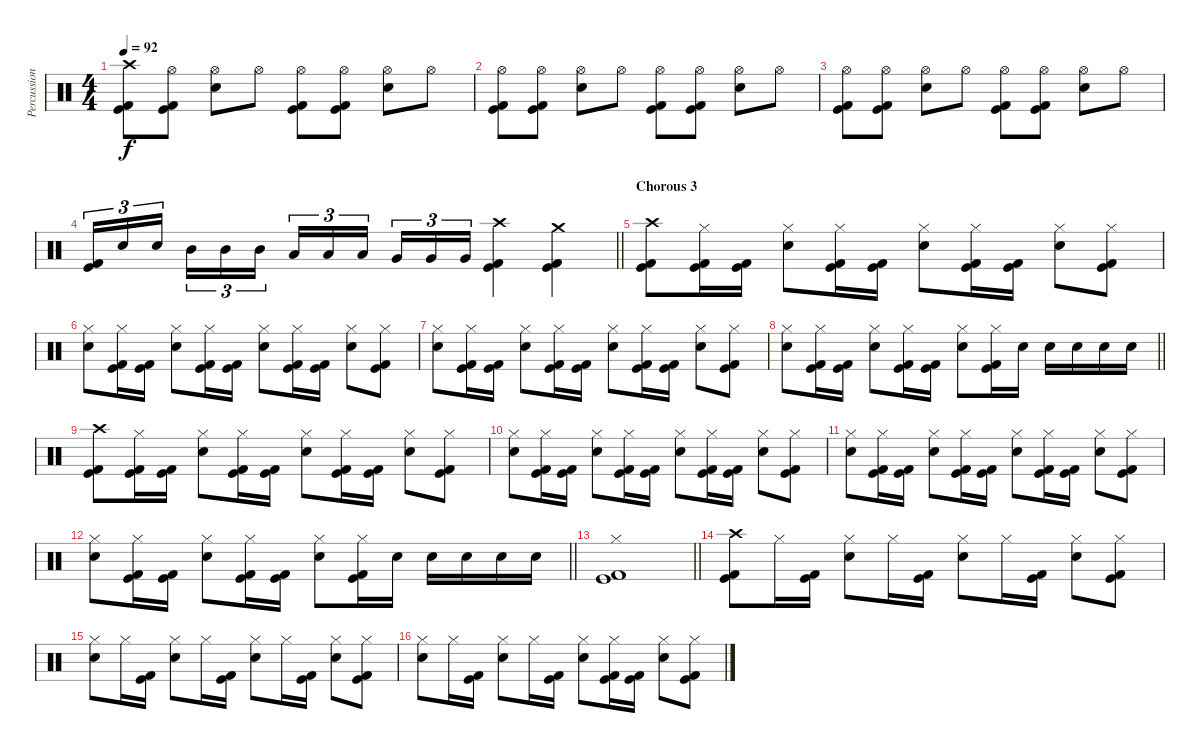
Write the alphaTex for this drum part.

\track ("Percussion" "Percussion") {instrument percussion}
\staff {score}
\articulation defaults
\ts (4 4)
\section ("" "")
\tempo 92
\clef neutral
\ks c
("Crash high (hit)" "Kick (hit)" "Kick (hit) 2").8{dy f} ("Hi-Hat (open)" "Kick (hit)" "Kick (hit) 2").8 ("Hi-Hat (open)" "Electric Snare (hit)").8 "Hi-Hat (open)".8 ("Hi-Hat (open)" "Kick (hit)" "Kick (hit) 2").8 ("Hi-Hat (open)" "Kick (hit)" "Kick (hit) 2").8 ("Hi-Hat (open)" "Electric Snare (hit)").8 "Hi-Hat (open)".8 |
("Hi-Hat (open)" "Kick (hit)" "Kick (hit) 2").8 ("Hi-Hat (open)" "Kick (hit)" "Kick (hit) 2").8 ("Hi-Hat (open)" "Electric Snare (hit)").8 "Hi-Hat (open)".8 ("Hi-Hat (open)" "Kick (hit)" "Kick (hit) 2").8 ("Hi-Hat (open)" "Kick (hit)" "Kick (hit) 2").8 ("Hi-Hat (open)" "Electric Snare (hit)").8 "Hi-Hat (open)".8 |
("Hi-Hat (open)" "Kick (hit)" "Kick (hit) 2").8 ("Hi-Hat (open)" "Kick (hit)" "Kick (hit) 2").8 ("Hi-Hat (open)" "Electric Snare (hit)").8 "Hi-Hat (open)".8 ("Hi-Hat (open)" "Kick (hit)" "Kick (hit) 2").8 ("Hi-Hat (open)" "Kick (hit)" "Kick (hit) 2").8 ("Hi-Hat (open)" "Electric Snare (hit)").8 "Hi-Hat (open)".8 |
\barLineRight lightlight
("Kick (hit)" "Kick (hit) 2").16{tu (3 2)} "Electric Snare (hit)".16{tu (3 2)} "Electric Snare (hit)".16{tu (3 2) beam splitsecondary} "Mid Tom (hit)".16{tu (3 2)} "Mid Tom (hit)".16{tu (3 2)} "Mid Tom (hit)".16{tu (3 2)} "Low Tom (hit)".16{tu (3 2)} "Low Tom (hit)".16{tu (3 2)} "Low Tom (hit)".16{tu (3 2) beam splitsecondary} "Very Low Tom (hit)".16{tu (3 2)} "Very Low Tom (hit)".16{tu (3 2)} "Very Low Tom (hit)".16{tu (3 2)} ("Crash high (hit)" "Kick (hit)" "Kick (hit) 2").4 ("Crash medium (hit)" "Kick (hit)" "Kick (hit) 2").4 |
\section ("" "Chorous 3")
("Crash high (hit)" "Kick (hit)" "Kick (hit) 2").8 ("Hi-Hat (closed)" "Kick (hit)" "Kick (hit) 2").16 ("Kick (hit)" "Kick (hit) 2").16 ("Hi-Hat (closed)" "Electric Snare (hit)").8 ("Hi-Hat (closed)" "Kick (hit)" "Kick (hit) 2").16 ("Kick (hit)" "Kick (hit) 2").16 ("Hi-Hat (closed)" "Electric Snare (hit)").8 ("Hi-Hat (closed)" "Kick (hit)" "Kick (hit) 2").16 ("Kick (hit)" "Kick (hit) 2").16 ("Hi-Hat (closed)" "Electric Snare (hit)").8 ("Hi-Hat (closed)" "Kick (hit)" "Kick (hit) 2").8 |
("Hi-Hat (closed)" "Electric Snare (hit)").8 ("Hi-Hat (closed)" "Kick (hit)" "Kick (hit) 2").16 ("Kick (hit)" "Kick (hit) 2").16 ("Hi-Hat (closed)" "Electric Snare (hit)").8 ("Hi-Hat (closed)" "Kick (hit)" "Kick (hit) 2").16 ("Kick (hit)" "Kick (hit) 2").16 ("Hi-Hat (closed)" "Electric Snare (hit)").8 ("Hi-Hat (closed)" "Kick (hit)" "Kick (hit) 2").16 ("Kick (hit)" "Kick (hit) 2").16 ("Hi-Hat (closed)" "Electric Snare (hit)").8 ("Hi-Hat (closed)" "Kick (hit)" "Kick (hit) 2").8 |
("Hi-Hat (closed)" "Electric Snare (hit)").8 ("Hi-Hat (closed)" "Kick (hit)" "Kick (hit) 2").16 ("Kick (hit)" "Kick (hit) 2").16 ("Hi-Hat (closed)" "Electric Snare (hit)").8 ("Hi-Hat (closed)" "Kick (hit)" "Kick (hit) 2").16 ("Kick (hit)" "Kick (hit) 2").16 ("Hi-Hat (closed)" "Electric Snare (hit)").8 ("Hi-Hat (closed)" "Kick (hit)" "Kick (hit) 2").16 ("Kick (hit)" "Kick (hit) 2").16 ("Hi-Hat (closed)" "Electric Snare (hit)").8 ("Hi-Hat (closed)" "Kick (hit)" "Kick (hit) 2").8 |
\barLineRight lightlight
("Hi-Hat (closed)" "Electric Snare (hit)").8 ("Hi-Hat (closed)" "Kick (hit)" "Kick (hit) 2").16 ("Kick (hit)" "Kick (hit) 2").16 ("Hi-Hat (closed)" "Electric Snare (hit)").8 ("Hi-Hat (closed)" "Kick (hit)" "Kick (hit) 2").16 ("Kick (hit)" "Kick (hit) 2").16 ("Hi-Hat (closed)" "Electric Snare (hit)").8 ("Hi-Hat (closed)" "Kick (hit)" "Kick (hit) 2").16 "Electric Snare (hit)".16 "Electric Snare (hit)".16 "Electric Snare (hit)".16 "Electric Snare (hit)".16 "Electric Snare (hit)".16 |
\section ("" "")
("Crash high (hit)" "Kick (hit)" "Kick (hit) 2").8 ("Hi-Hat (closed)" "Kick (hit)" "Kick (hit) 2").16 ("Kick (hit)" "Kick (hit) 2").16 ("Hi-Hat (closed)" "Electric Snare (hit)").8 ("Hi-Hat (closed)" "Kick (hit)" "Kick (hit) 2").16 ("Kick (hit)" "Kick (hit) 2").16 ("Hi-Hat (closed)" "Electric Snare (hit)").8 ("Hi-Hat (closed)" "Kick (hit)" "Kick (hit) 2").16 ("Kick (hit)" "Kick (hit) 2").16 ("Hi-Hat (closed)" "Electric Snare (hit)").8 ("Hi-Hat (closed)" "Kick (hit)" "Kick (hit) 2").8 |
("Hi-Hat (closed)" "Electric Snare (hit)").8 ("Hi-Hat (closed)" "Kick (hit)" "Kick (hit) 2").16 ("Kick (hit)" "Kick (hit) 2").16 ("Hi-Hat (closed)" "Electric Snare (hit)").8 ("Hi-Hat (closed)" "Kick (hit)" "Kick (hit) 2").16 ("Kick (hit)" "Kick (hit) 2").16 ("Hi-Hat (closed)" "Electric Snare (hit)").8 ("Hi-Hat (closed)" "Kick (hit)" "Kick (hit) 2").16 ("Kick (hit)" "Kick (hit) 2").16 ("Hi-Hat (closed)" "Electric Snare (hit)").8 ("Hi-Hat (closed)" "Kick (hit)" "Kick (hit) 2").8 |
("Hi-Hat (closed)" "Electric Snare (hit)").8 ("Hi-Hat (closed)" "Kick (hit)" "Kick (hit) 2").16 ("Kick (hit)" "Kick (hit) 2").16 ("Hi-Hat (closed)" "Electric Snare (hit)").8 ("Hi-Hat (closed)" "Kick (hit)" "Kick (hit) 2").16 ("Kick (hit)" "Kick (hit) 2").16 ("Hi-Hat (closed)" "Electric Snare (hit)").8 ("Hi-Hat (closed)" "Kick (hit)" "Kick (hit) 2").16 ("Kick (hit)" "Kick (hit) 2").16 ("Hi-Hat (closed)" "Electric Snare (hit)").8 ("Hi-Hat (closed)" "Kick (hit)" "Kick (hit) 2").8 |
\barLineRight lightlight
("Hi-Hat (closed)" "Electric Snare (hit)").8 ("Hi-Hat (closed)" "Kick (hit)" "Kick (hit) 2").16 ("Kick (hit)" "Kick (hit) 2").16 ("Hi-Hat (closed)" "Electric Snare (hit)").8 ("Hi-Hat (closed)" "Kick (hit)" "Kick (hit) 2").16 ("Kick (hit)" "Kick (hit) 2").16 ("Hi-Hat (closed)" "Electric Snare (hit)").8 ("Hi-Hat (closed)" "Kick (hit)" "Kick (hit) 2").16 "Electric Snare (hit)".16 "Electric Snare (hit)".16 "Electric Snare (hit)".16 "Electric Snare (hit)".16 "Electric Snare (hit)".16 |
\section ("" "")
\barLineRight lightlight
("Hi-Hat (closed)" "Kick (hit)" "Kick (hit) 2").1 |
\section ("" "")
("Crash high (hit)" "Kick (hit)" "Kick (hit) 2").8 "Hi-Hat (closed)".16 ("Kick (hit)" "Kick (hit) 2").16 ("Hi-Hat (closed)" "Electric Snare (hit)").8 "Hi-Hat (closed)".16 ("Kick (hit)" "Kick (hit) 2").16 ("Hi-Hat (closed)" "Electric Snare (hit)").8 "Hi-Hat (closed)".16 ("Kick (hit)" "Kick (hit) 2").16 ("Hi-Hat (closed)" "Electric Snare (hit)").8 ("Hi-Hat (closed)" "Kick (hit)" "Kick (hit) 2").8 |
("Hi-Hat (closed)" "Electric Snare (hit)").8 "Hi-Hat (closed)".16 ("Kick (hit)" "Kick (hit) 2").16 ("Hi-Hat (closed)" "Electric Snare (hit)").8 "Hi-Hat (closed)".16 ("Kick (hit)" "Kick (hit) 2").16 ("Hi-Hat (closed)" "Electric Snare (hit)").8 "Hi-Hat (closed)".16 ("Kick (hit)" "Kick (hit) 2").16 ("Hi-Hat (closed)" "Electric Snare (hit)").8 ("Hi-Hat (closed)" "Kick (hit)" "Kick (hit) 2").8 |
("Hi-Hat (closed)" "Electric Snare (hit)").8 "Hi-Hat (closed)".16 ("Kick (hit)" "Kick (hit) 2").16 ("Hi-Hat (closed)" "Electric Snare (hit)").8 "Hi-Hat (closed)".16 ("Kick (hit)" "Kick (hit) 2").16 ("Hi-Hat (closed)" "Electric Snare (hit)").8 ("Hi-Hat (closed)" "Kick (hit)" "Kick (hit) 2").16 ("Kick (hit)" "Kick (hit) 2").16 ("Hi-Hat (closed)" "Electric Snare (hit)").8 ("Hi-Hat (closed)" "Kick (hit)" "Kick (hit) 2").8
